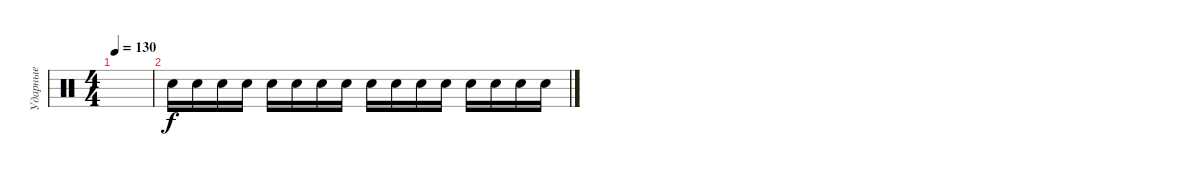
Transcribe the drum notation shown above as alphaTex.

\track ("Ударные" "Ударные") {instrument percussion}
\staff {score}
\articulation defaults
\ts (4 4)
\tempo 130
\clef neutral
\ks c
|
"Electric Snare (hit)".16 "Electric Snare (hit)".16 "Electric Snare (hit)".16 "Electric Snare (hit)".16 "Electric Snare (hit)".16 "Electric Snare (hit)".16 "Electric Snare (hit)".16 "Electric Snare (hit)".16 "Electric Snare (hit)".16 "Electric Snare (hit)".16 "Electric Snare (hit)".16 "Electric Snare (hit)".16 "Electric Snare (hit)".16 "Electric Snare (hit)".16 "Electric Snare (hit)".16 "Electric Snare (hit)".16
